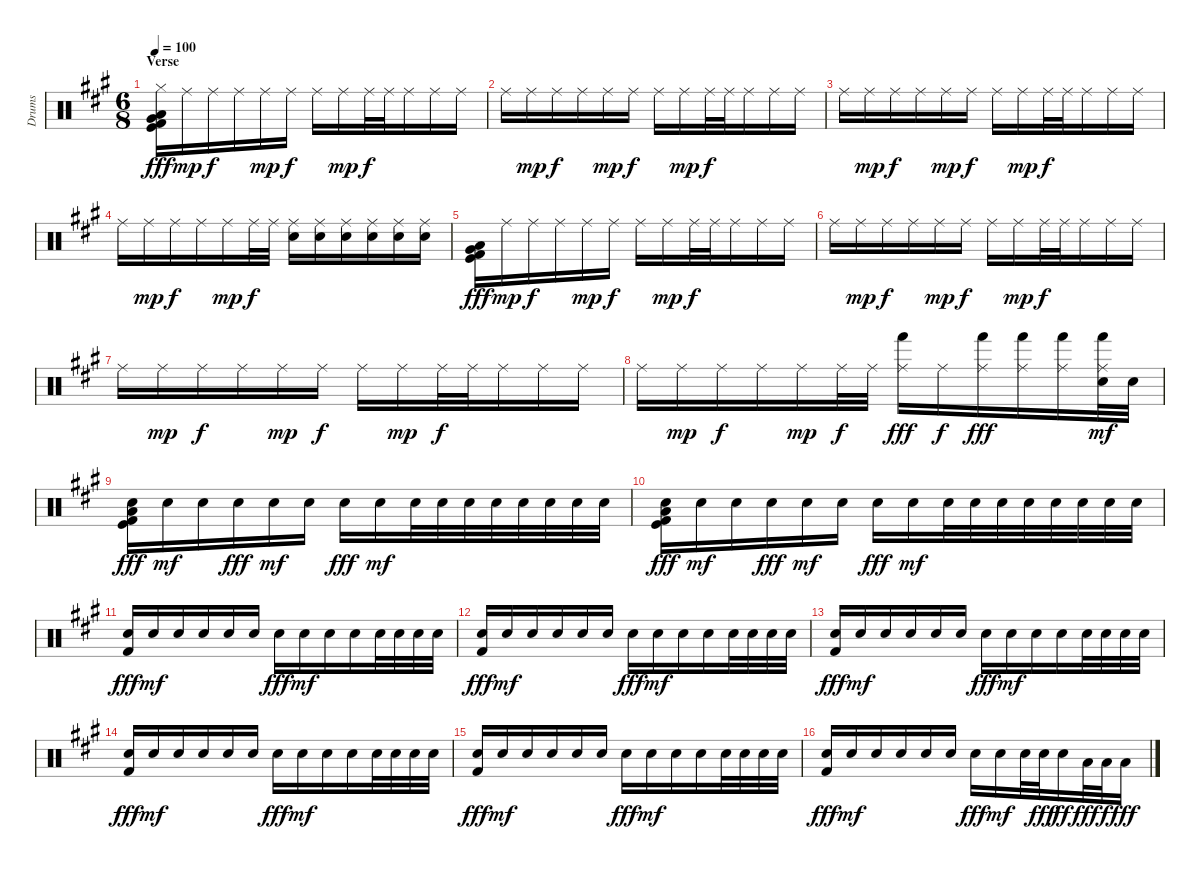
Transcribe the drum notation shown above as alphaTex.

\track ("Drums" "Drums") {instrument percussion}
\staff {score}
\articulation defaults
\ts (6 8)
\section ("" "Verse")
\tempo 100
\clef neutral
\ks a
("Hi-Hat (closed)" "Very Low Tom (hit)" "Low Floor Tom (hit)" "Kick (hit) 2" "Kick (hit)").16{dy fff} "Ride (middle)".16{dy mp} "Ride (middle)".16{dy f} "Ride (middle)".16 "Ride (middle)".16{dy mp} "Ride (middle)".16{dy f} "Ride (middle)".16 "Ride (middle)".16{dy mp} "Ride (middle)".32{dy f} "Ride (middle)".32 "Ride (middle)".16 "Ride (middle)".16 "Ride (middle)".16 |
"Ride (middle)".16 "Ride (middle)".16{dy mp} "Ride (middle)".16{dy f} "Ride (middle)".16 "Ride (middle)".16{dy mp} "Ride (middle)".16{dy f} "Ride (middle)".16 "Ride (middle)".16{dy mp} "Ride (middle)".32{dy f} "Ride (middle)".32 "Ride (middle)".16 "Ride (middle)".16 "Ride (middle)".16 |
"Ride (middle)".16 "Ride (middle)".16{dy mp} "Ride (middle)".16{dy f} "Ride (middle)".16 "Ride (middle)".16{dy mp} "Ride (middle)".16{dy f} "Ride (middle)".16 "Ride (middle)".16{dy mp} "Ride (middle)".32{dy f} "Ride (middle)".32 "Ride (middle)".16 "Ride (middle)".16 "Ride (middle)".16 |
"Ride (middle)".16 "Ride (middle)".16{dy mp} "Ride (middle)".16{dy f} "Ride (middle)".16 "Ride (middle)".16{dy mp} "Ride (middle)".32{dy f} "Ride (middle)".32 ("Ride (middle)" "Snare (hit) 2").16 ("Ride (middle)" "Snare (hit) 2").16 ("Ride (middle)" "Snare (hit) 2").16 ("Ride (middle)" "Snare (hit) 2").16 ("Ride (middle)" "Snare (hit) 2").16 ("Ride (middle)" "Snare (hit) 2").16 |
("Very Low Tom (hit)" "Low Floor Tom (hit)" "Kick (hit) 2" "Kick (hit)").16{dy fff} "Ride (middle)".16{dy mp} "Ride (middle)".16{dy f} "Ride (middle)".16 "Ride (middle)".16{dy mp} "Ride (middle)".16{dy f} "Ride (middle)".16 "Ride (middle)".16{dy mp} "Ride (middle)".32{dy f} "Ride (middle)".32 "Ride (middle)".16 "Ride (middle)".16 "Ride (middle)".16 |
"Ride (middle)".16 "Ride (middle)".16{dy mp} "Ride (middle)".16{dy f} "Ride (middle)".16 "Ride (middle)".16{dy mp} "Ride (middle)".16{dy f} "Ride (middle)".16 "Ride (middle)".16{dy mp} "Ride (middle)".32{dy f} "Ride (middle)".32 "Ride (middle)".16 "Ride (middle)".16 "Ride (middle)".16 |
"Ride (middle)".16 "Ride (middle)".16{dy mp} "Ride (middle)".16{dy f} "Ride (middle)".16 "Ride (middle)".16{dy mp} "Ride (middle)".16{dy f} "Ride (middle)".16 "Ride (middle)".16{dy mp} "Ride (middle)".32{dy f} "Ride (middle)".32 "Ride (middle)".16 "Ride (middle)".16 "Ride (middle)".16 |
"Ride (middle)".16 "Ride (middle)".16{dy mp} "Ride (middle)".16{dy f} "Ride (middle)".16 "Ride (middle)".16{dy mp} "Ride (middle)".32{dy f} "Ride (middle)".32 ("Ride (middle)" "Hand (hit)").16{dy fff} "Ride (middle)".16{dy f} ("Ride (middle)" "Hand (hit)").16{dy fff} ("Ride (middle)" "Hand (hit)").16 ("Ride (middle)" "Hand (hit)").16 ("Ride (middle)" "Hand (hit)" "Electric Snare (hit)").32{dy mf} "Electric Snare (hit)".32 |
("Low Floor Tom (hit)" "Electric Snare (hit)" "Kick (hit) 2" "Kick (hit)").16{dy fff} "Electric Snare (hit)".16{dy mf} "Electric Snare (hit)".16 "Electric Snare (hit)".16{dy fff} "Electric Snare (hit)".16{dy mf} "Electric Snare (hit)".16 "Electric Snare (hit)".16{dy fff} "Electric Snare (hit)".16{dy mf} "Electric Snare (hit)".32 "Electric Snare (hit)".32 "Electric Snare (hit)".32 "Electric Snare (hit)".32 "Electric Snare (hit)".32 "Electric Snare (hit)".32 "Electric Snare (hit)".32 "Electric Snare (hit)".32 |
("Low Floor Tom (hit)" "Electric Snare (hit)" "Kick (hit) 2" "Kick (hit)").16{dy fff} "Electric Snare (hit)".16{dy mf} "Electric Snare (hit)".16 "Electric Snare (hit)".16{dy fff} "Electric Snare (hit)".16{dy mf} "Electric Snare (hit)".16 "Electric Snare (hit)".16{dy fff} "Electric Snare (hit)".16{dy mf} "Electric Snare (hit)".32 "Electric Snare (hit)".32 "Electric Snare (hit)".32 "Electric Snare (hit)".32 "Electric Snare (hit)".32 "Electric Snare (hit)".32 "Electric Snare (hit)".32 "Electric Snare (hit)".32 |
("Electric Snare (hit)" "Kick (hit) 2").16{dy fff} "Electric Snare (hit)".16{dy mf} "Electric Snare (hit)".16 "Electric Snare (hit)".16 "Electric Snare (hit)".16 "Electric Snare (hit)".16 "Electric Snare (hit)".16{dy fff} "Electric Snare (hit)".16{dy mf} "Electric Snare (hit)".16 "Electric Snare (hit)".16 "Electric Snare (hit)".32 "Electric Snare (hit)".32 "Electric Snare (hit)".32 "Electric Snare (hit)".32 |
("Electric Snare (hit)" "Kick (hit) 2").16{dy fff} "Electric Snare (hit)".16{dy mf} "Electric Snare (hit)".16 "Electric Snare (hit)".16 "Electric Snare (hit)".16 "Electric Snare (hit)".16 "Electric Snare (hit)".16{dy fff} "Electric Snare (hit)".16{dy mf} "Electric Snare (hit)".16 "Electric Snare (hit)".16 "Electric Snare (hit)".32 "Electric Snare (hit)".32 "Electric Snare (hit)".32 "Electric Snare (hit)".32 |
("Electric Snare (hit)" "Kick (hit) 2").16{dy fff} "Electric Snare (hit)".16{dy mf} "Electric Snare (hit)".16 "Electric Snare (hit)".16 "Electric Snare (hit)".16 "Electric Snare (hit)".16 "Electric Snare (hit)".16{dy fff} "Electric Snare (hit)".16{dy mf} "Electric Snare (hit)".16 "Electric Snare (hit)".16 "Electric Snare (hit)".32 "Electric Snare (hit)".32 "Electric Snare (hit)".32 "Electric Snare (hit)".32 |
("Electric Snare (hit)" "Kick (hit) 2").16{dy fff} "Electric Snare (hit)".16{dy mf} "Electric Snare (hit)".16 "Electric Snare (hit)".16 "Electric Snare (hit)".16 "Electric Snare (hit)".16 "Electric Snare (hit)".16{dy fff} "Electric Snare (hit)".16{dy mf} "Electric Snare (hit)".16 "Electric Snare (hit)".16 "Electric Snare (hit)".32 "Electric Snare (hit)".32 "Electric Snare (hit)".32 "Electric Snare (hit)".32 |
("Electric Snare (hit)" "Kick (hit) 2").16{dy fff} "Electric Snare (hit)".16{dy mf} "Electric Snare (hit)".16 "Electric Snare (hit)".16 "Electric Snare (hit)".16 "Electric Snare (hit)".16 "Electric Snare (hit)".16{dy fff} "Electric Snare (hit)".16{dy mf} "Electric Snare (hit)".16 "Electric Snare (hit)".16 "Electric Snare (hit)".32 "Electric Snare (hit)".32 "Electric Snare (hit)".32 "Electric Snare (hit)".32 |
("Electric Snare (hit)" "Kick (hit) 2").16{dy fff} "Electric Snare (hit)".16{dy mf} "Electric Snare (hit)".16 "Electric Snare (hit)".16 "Electric Snare (hit)".16 "Electric Snare (hit)".16 "Electric Snare (hit)".16{dy fff} "Electric Snare (hit)".16{dy mf} "Electric Snare (hit)".32 "Electric Snare (hit)".32{dy fff} "Electric Snare (hit)".16{dy ff} "Low Tom (hit)".32{dy fff} "Low Tom (hit)".32{dy f} "Low Tom (hit)".16{dy fff}
